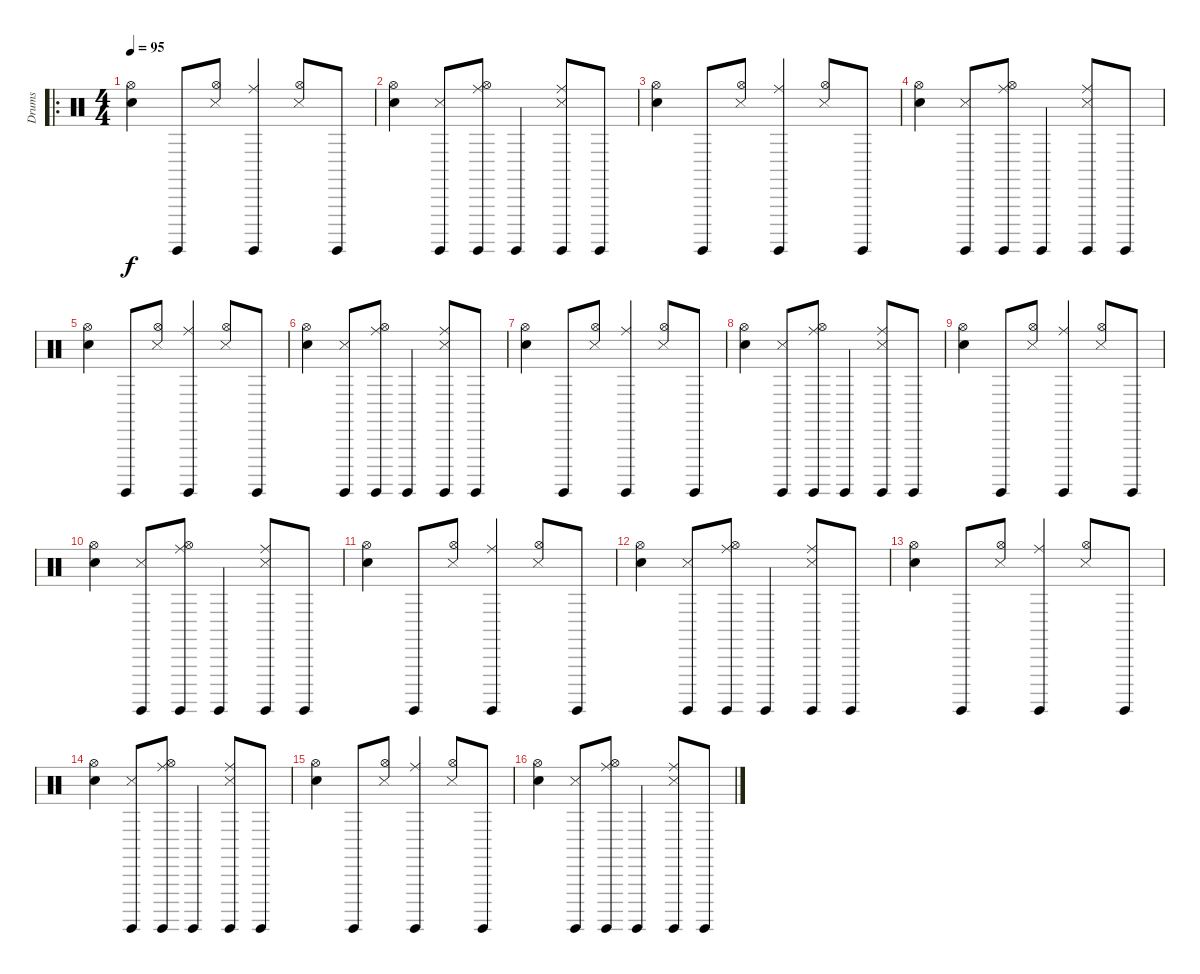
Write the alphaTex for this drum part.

\track ("Drums" "Drums") {instrument percussion}
\staff {score}
\articulation defaults
\ro
\ts (4 4)
\tempo 95
\clef neutral
\ks c
("Snare (hit) 2" "Hi-Hat (open)").4{dy f} "Surdo (hit)".8 ("Hi-Hat (open)" "Snare (side stick) 3").8 ("Surdo (hit)" "Ride (middle)").4 ("Hi-Hat (open)" "Snare (side stick) 3").8 "Surdo (hit)".8 |
("Snare (hit) 2" "Hi-Hat (open)").4 ("Surdo (hit)" "Snare (side stick) 3").8 ("Surdo (hit)" "Ride (middle)" "Hi-Hat (open)").8 "Surdo (hit)".4 ("Surdo (hit)" "Ride (middle)" "Snare (side stick) 3").8 "Surdo (hit)".8 |
("Snare (hit) 2" "Hi-Hat (open)").4 "Surdo (hit)".8 ("Hi-Hat (open)" "Snare (side stick) 3").8 ("Surdo (hit)" "Ride (middle)").4 ("Hi-Hat (open)" "Snare (side stick) 3").8 "Surdo (hit)".8 |
("Snare (hit) 2" "Hi-Hat (open)").4 ("Surdo (hit)" "Snare (side stick) 3").8 ("Surdo (hit)" "Ride (middle)" "Hi-Hat (open)").8 "Surdo (hit)".4 ("Surdo (hit)" "Ride (middle)" "Snare (side stick) 3").8 "Surdo (hit)".8 |
("Snare (hit) 2" "Hi-Hat (open)").4 "Surdo (hit)".8 ("Hi-Hat (open)" "Snare (side stick) 3").8 ("Surdo (hit)" "Ride (middle)").4 ("Hi-Hat (open)" "Snare (side stick) 3").8 "Surdo (hit)".8 |
("Snare (hit) 2" "Hi-Hat (open)").4 ("Surdo (hit)" "Snare (side stick) 3").8 ("Surdo (hit)" "Ride (middle)" "Hi-Hat (open)").8 "Surdo (hit)".4 ("Surdo (hit)" "Ride (middle)" "Snare (side stick) 3").8 "Surdo (hit)".8 |
("Snare (hit) 2" "Hi-Hat (open)").4 "Surdo (hit)".8 ("Hi-Hat (open)" "Snare (side stick) 3").8 ("Surdo (hit)" "Ride (middle)").4 ("Hi-Hat (open)" "Snare (side stick) 3").8 "Surdo (hit)".8 |
("Snare (hit) 2" "Hi-Hat (open)").4 ("Surdo (hit)" "Snare (side stick) 3").8 ("Surdo (hit)" "Ride (middle)" "Hi-Hat (open)").8 "Surdo (hit)".4 ("Surdo (hit)" "Ride (middle)" "Snare (side stick) 3").8 "Surdo (hit)".8 |
("Snare (hit) 2" "Hi-Hat (open)").4 "Surdo (hit)".8 ("Hi-Hat (open)" "Snare (side stick) 3").8 ("Surdo (hit)" "Ride (middle)").4 ("Hi-Hat (open)" "Snare (side stick) 3").8 "Surdo (hit)".8 |
("Snare (hit) 2" "Hi-Hat (open)").4 ("Surdo (hit)" "Snare (side stick) 3").8 ("Surdo (hit)" "Ride (middle)" "Hi-Hat (open)").8 "Surdo (hit)".4 ("Surdo (hit)" "Ride (middle)" "Snare (side stick) 3").8 "Surdo (hit)".8 |
("Snare (hit) 2" "Hi-Hat (open)").4 "Surdo (hit)".8 ("Hi-Hat (open)" "Snare (side stick) 3").8 ("Surdo (hit)" "Ride (middle)").4 ("Hi-Hat (open)" "Snare (side stick) 3").8 "Surdo (hit)".8 |
("Snare (hit) 2" "Hi-Hat (open)").4 ("Surdo (hit)" "Snare (side stick) 3").8 ("Surdo (hit)" "Ride (middle)" "Hi-Hat (open)").8 "Surdo (hit)".4 ("Surdo (hit)" "Ride (middle)" "Snare (side stick) 3").8 "Surdo (hit)".8 |
("Snare (hit) 2" "Hi-Hat (open)").4 "Surdo (hit)".8 ("Hi-Hat (open)" "Snare (side stick) 3").8 ("Surdo (hit)" "Ride (middle)").4 ("Hi-Hat (open)" "Snare (side stick) 3").8 "Surdo (hit)".8 |
("Snare (hit) 2" "Hi-Hat (open)").4 ("Surdo (hit)" "Snare (side stick) 3").8 ("Surdo (hit)" "Ride (middle)" "Hi-Hat (open)").8 "Surdo (hit)".4 ("Surdo (hit)" "Ride (middle)" "Snare (side stick) 3").8 "Surdo (hit)".8 |
("Snare (hit) 2" "Hi-Hat (open)").4 "Surdo (hit)".8 ("Hi-Hat (open)" "Snare (side stick) 3").8 ("Surdo (hit)" "Ride (middle)").4 ("Hi-Hat (open)" "Snare (side stick) 3").8 "Surdo (hit)".8 |
("Snare (hit) 2" "Hi-Hat (open)").4 ("Surdo (hit)" "Snare (side stick) 3").8 ("Surdo (hit)" "Ride (middle)" "Hi-Hat (open)").8 "Surdo (hit)".4 ("Surdo (hit)" "Ride (middle)" "Snare (side stick) 3").8 "Surdo (hit)".8
